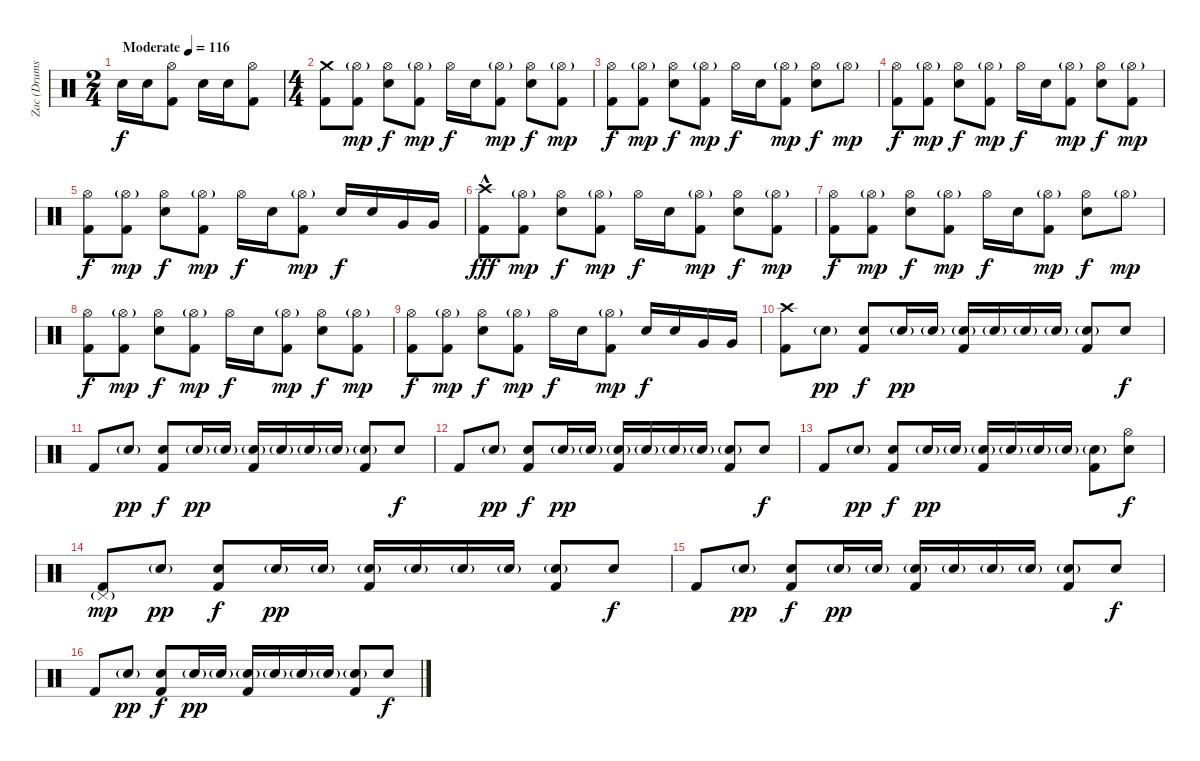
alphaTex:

\track ("Zac (Drums)" "Zac (Drums") {instrument percussion}
\staff {score}
\articulation defaults
\ts (2 4)
\tempo (116 "Moderate")
\clef neutral
\ks c "Electric Snare (hit)".16{dy f} "Electric Snare (hit)".16
("Hi-Hat (open)" "Kick (hit) 2").8 "Electric Snare (hit)".16 "Electric Snare (hit)".16 ("Hi-Hat (open)" "Kick (hit) 2").8 |
\ts (4 4)
("Crash medium (hit)" "Kick (hit) 2").8 ("Hi-Hat (open)"{g} "Kick (hit) 2").8{dy mp} ("Hi-Hat (open)" "Electric Snare (hit)").8{dy f} ("Hi-Hat (open)"{g} "Kick (hit) 2").8{dy mp} "Hi-Hat (open)".16{dy f} "Electric Snare (hit)".16 ("Hi-Hat (open)"{g} "Kick (hit) 2").8{dy mp} ("Hi-Hat (open)" "Electric Snare (hit)").8{dy f} ("Hi-Hat (open)"{g} "Kick (hit) 2").8{dy mp} |
("Hi-Hat (open)" "Kick (hit) 2").8{dy f} ("Hi-Hat (open)"{g} "Kick (hit) 2").8{dy mp} ("Hi-Hat (open)" "Electric Snare (hit)").8{dy f} ("Hi-Hat (open)"{g} "Kick (hit) 2").8{dy mp} "Hi-Hat (open)".16{dy f} "Electric Snare (hit)".16 ("Hi-Hat (open)"{g} "Kick (hit) 2").8{dy mp} ("Hi-Hat (open)" "Electric Snare (hit)").8{dy f} "Hi-Hat (open)"{g}.8{dy mp} |
("Hi-Hat (open)" "Kick (hit) 2").8{dy f} ("Hi-Hat (open)"{g} "Kick (hit) 2").8{dy mp} ("Hi-Hat (open)" "Electric Snare (hit)").8{dy f} ("Hi-Hat (open)"{g} "Kick (hit) 2").8{dy mp} "Hi-Hat (open)".16{dy f} "Electric Snare (hit)".16 ("Hi-Hat (open)"{g} "Kick (hit) 2").8{dy mp} ("Hi-Hat (open)" "Electric Snare (hit)").8{dy f} ("Hi-Hat (open)"{g} "Kick (hit) 2").8{dy mp} |
("Hi-Hat (open)" "Kick (hit) 2").8{dy f} ("Hi-Hat (open)"{g} "Kick (hit) 2").8{dy mp} ("Hi-Hat (open)" "Electric Snare (hit)").8{dy f} ("Hi-Hat (open)"{g} "Kick (hit) 2").8{dy mp} "Hi-Hat (open)".16{dy f} "Electric Snare (hit)".16 ("Hi-Hat (open)"{g} "Kick (hit) 2").8{dy mp} "Electric Snare (hit)".16{dy f} "Electric Snare (hit)".16 "Very Low Tom (hit)".16 "Very Low Tom (hit)".16 |
("Crash high (hit)"{hac} "Kick (hit) 2").8{dy fff} ("Hi-Hat (open)"{g} "Kick (hit) 2").8{dy mp} ("Hi-Hat (open)" "Electric Snare (hit)").8{dy f} ("Hi-Hat (open)"{g} "Kick (hit) 2").8{dy mp} "Hi-Hat (open)".16{dy f} "Electric Snare (hit)".16 ("Hi-Hat (open)"{g} "Kick (hit) 2").8{dy mp} ("Hi-Hat (open)" "Electric Snare (hit)").8{dy f} ("Hi-Hat (open)"{g} "Kick (hit) 2").8{dy mp} |
("Hi-Hat (open)" "Kick (hit) 2").8{dy f} ("Hi-Hat (open)"{g} "Kick (hit) 2").8{dy mp} ("Hi-Hat (open)" "Electric Snare (hit)").8{dy f} ("Hi-Hat (open)"{g} "Kick (hit) 2").8{dy mp} "Hi-Hat (open)".16{dy f} "Electric Snare (hit)".16 ("Hi-Hat (open)"{g} "Kick (hit) 2").8{dy mp} ("Hi-Hat (open)" "Electric Snare (hit)").8{dy f} "Hi-Hat (open)"{g}.8{dy mp} |
("Hi-Hat (open)" "Kick (hit) 2").8{dy f} ("Hi-Hat (open)"{g} "Kick (hit) 2").8{dy mp} ("Hi-Hat (open)" "Electric Snare (hit)").8{dy f} ("Hi-Hat (open)"{g} "Kick (hit) 2").8{dy mp} "Hi-Hat (open)".16{dy f} "Electric Snare (hit)".16 ("Hi-Hat (open)"{g} "Kick (hit) 2").8{dy mp} ("Hi-Hat (open)" "Electric Snare (hit)").8{dy f} ("Hi-Hat (open)"{g} "Kick (hit) 2").8{dy mp} |
("Hi-Hat (open)" "Kick (hit) 2").8{dy f} ("Hi-Hat (open)"{g} "Kick (hit) 2").8{dy mp} ("Hi-Hat (open)" "Electric Snare (hit)").8{dy f} ("Hi-Hat (open)"{g} "Kick (hit) 2").8{dy mp} "Hi-Hat (open)".16{dy f} "Electric Snare (hit)".16 ("Hi-Hat (open)"{g} "Kick (hit) 2").8{dy mp} "Electric Snare (hit)".16{dy f} "Electric Snare (hit)".16 "Very Low Tom (hit)".16 "Very Low Tom (hit)".16 |
("Crash high (hit)" "Kick (hit) 2").8 "Electric Snare (hit)"{g}.8{dy pp} ("Electric Snare (hit)" "Kick (hit) 2").8{dy f} "Electric Snare (hit)"{g}.16{dy pp} "Electric Snare (hit)"{g}.16 ("Electric Snare (hit)"{g} "Kick (hit) 2").16 "Electric Snare (hit)"{g}.16 "Electric Snare (hit)"{g}.16 "Electric Snare (hit)"{g}.16 ("Electric Snare (hit)"{g} "Kick (hit) 2").8 "Electric Snare (hit)".8{dy f} |
"Kick (hit) 2".8 "Electric Snare (hit)"{g}.8{dy pp} ("Electric Snare (hit)" "Kick (hit) 2").8{dy f} "Electric Snare (hit)"{g}.16{dy pp} "Electric Snare (hit)"{g}.16 ("Electric Snare (hit)"{g} "Kick (hit) 2").16 "Electric Snare (hit)"{g}.16 "Electric Snare (hit)"{g}.16 "Electric Snare (hit)"{g}.16 ("Electric Snare (hit)"{g} "Kick (hit) 2").8 "Electric Snare (hit)".8{dy f} |
"Kick (hit) 2".8 "Electric Snare (hit)"{g}.8{dy pp} ("Electric Snare (hit)" "Kick (hit) 2").8{dy f} "Electric Snare (hit)"{g}.16{dy pp} "Electric Snare (hit)"{g}.16 ("Electric Snare (hit)"{g} "Kick (hit) 2").16 "Electric Snare (hit)"{g}.16 "Electric Snare (hit)"{g}.16 "Electric Snare (hit)"{g}.16 ("Electric Snare (hit)"{g} "Kick (hit) 2").8 "Electric Snare (hit)".8{dy f} |
"Kick (hit) 2".8 "Electric Snare (hit)"{g}.8{dy pp} ("Electric Snare (hit)" "Kick (hit) 2").8{dy f} "Electric Snare (hit)"{g}.16{dy pp} "Electric Snare (hit)"{g}.16 ("Electric Snare (hit)"{g} "Kick (hit) 2").16 "Electric Snare (hit)"{g}.16 "Electric Snare (hit)"{g}.16 "Electric Snare (hit)"{g}.16 ("Electric Snare (hit)"{g} "Kick (hit) 2").8 ("Hi-Hat (open)" "Electric Snare (hit)").8{dy f} |
("Pedal Hi-Hat (hit)"{g} "Kick (hit) 2").8{dy mp} "Electric Snare (hit)"{g}.8{dy pp} ("Electric Snare (hit)" "Kick (hit) 2").8{dy f} "Electric Snare (hit)"{g}.16{dy pp} "Electric Snare (hit)"{g}.16 ("Electric Snare (hit)"{g} "Kick (hit) 2").16 "Electric Snare (hit)"{g}.16 "Electric Snare (hit)"{g}.16 "Electric Snare (hit)"{g}.16 ("Electric Snare (hit)"{g} "Kick (hit) 2").8 "Electric Snare (hit)".8{dy f} |
"Kick (hit) 2".8 "Electric Snare (hit)"{g}.8{dy pp} ("Electric Snare (hit)" "Kick (hit) 2").8{dy f} "Electric Snare (hit)"{g}.16{dy pp} "Electric Snare (hit)"{g}.16 ("Electric Snare (hit)"{g} "Kick (hit) 2").16 "Electric Snare (hit)"{g}.16 "Electric Snare (hit)"{g}.16 "Electric Snare (hit)"{g}.16 ("Electric Snare (hit)"{g} "Kick (hit) 2").8 "Electric Snare (hit)".8{dy f} |
"Kick (hit) 2".8 "Electric Snare (hit)"{g}.8{dy pp} ("Electric Snare (hit)" "Kick (hit) 2").8{dy f} "Electric Snare (hit)"{g}.16{dy pp} "Electric Snare (hit)"{g}.16 ("Electric Snare (hit)"{g} "Kick (hit) 2").16 "Electric Snare (hit)"{g}.16 "Electric Snare (hit)"{g}.16 "Electric Snare (hit)"{g}.16 ("Electric Snare (hit)"{g} "Kick (hit) 2").8 "Electric Snare (hit)".8{dy f}
